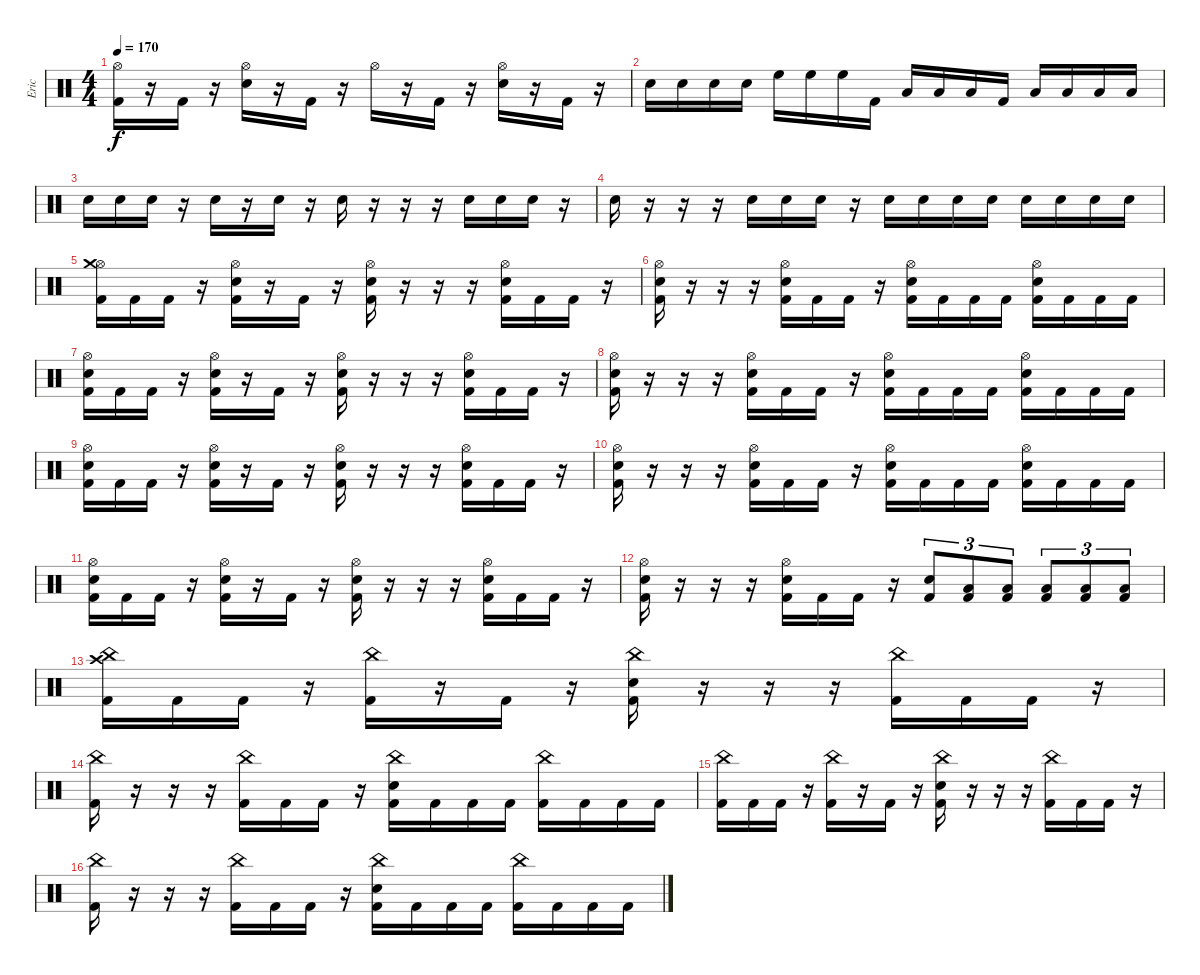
\track ("Eric" "Eric") {instrument percussion}
\staff {score}
\articulation defaults
\ts (4 4)
\tempo 170
\clef neutral
\ks c
("Hi-Hat (open)" "Kick (hit) 2").16{dy f} r.16 "Kick (hit) 2".16 r.16 ("Hi-Hat (open)" "Electric Snare (hit)").16 r.16 "Kick (hit) 2".16 r.16 "Hi-Hat (open)".16 r.16 "Kick (hit) 2".16 r.16 ("Hi-Hat (open)" "Electric Snare (hit)").16 r.16 "Kick (hit) 2".16 r.16 |
"Electric Snare (hit)".16 "Electric Snare (hit)".16 "Electric Snare (hit)".16 "Electric Snare (hit)".16 "High Floor Tom (hit)".16 "High Floor Tom (hit)".16 "High Floor Tom (hit)".16 "Kick (hit) 2".16 "Low Tom (hit)".16 "Low Tom (hit)".16 "Low Tom (hit)".16 "Kick (hit) 2".16 "Low Floor Tom (hit)".16 "Low Floor Tom (hit)".16 "Low Floor Tom (hit)".16 "Low Floor Tom (hit)".16 |
"Electric Snare (hit)".16 "Electric Snare (hit)".16 "Electric Snare (hit)".16 r.16 "Electric Snare (hit)".16 r.16 "Electric Snare (hit)".16 r.16 "Electric Snare (hit)".16 r.16 r.16 r.16 "Electric Snare (hit)".16 "Electric Snare (hit)".16 "Electric Snare (hit)".16 r.16 |
"Electric Snare (hit)".16 r.16 r.16 r.16 "Electric Snare (hit)".16 "Electric Snare (hit)".16 "Electric Snare (hit)".16 r.16 "Electric Snare (hit)".16 "Electric Snare (hit)".16 "Electric Snare (hit)".16 "Electric Snare (hit)".16 "Electric Snare (hit)".16 "Electric Snare (hit)".16 "Electric Snare (hit)".16 "Electric Snare (hit)".16 |
("Hi-Hat (open)" "Crash medium (hit)" "Kick (hit) 2").16 "Kick (hit) 2".16 "Kick (hit) 2".16 r.16 ("Hi-Hat (open)" "Electric Snare (hit)" "Kick (hit) 2").16 r.16 "Kick (hit) 2".16 r.16 ("Hi-Hat (open)" "Electric Snare (hit)" "Kick (hit) 2").16 r.16 r.16 r.16 ("Hi-Hat (open)" "Electric Snare (hit)" "Kick (hit) 2").16 "Kick (hit) 2".16 "Kick (hit) 2".16 r.16 |
("Hi-Hat (open)" "Electric Snare (hit)" "Kick (hit) 2").16 r.16 r.16 r.16 ("Hi-Hat (open)" "Electric Snare (hit)" "Kick (hit) 2").16 "Kick (hit) 2".16 "Kick (hit) 2".16 r.16 ("Hi-Hat (open)" "Electric Snare (hit)" "Kick (hit) 2").16 "Kick (hit) 2".16 "Kick (hit) 2".16 "Kick (hit) 2".16 ("Hi-Hat (open)" "Electric Snare (hit)" "Kick (hit) 2").16 "Kick (hit) 2".16 "Kick (hit) 2".16 "Kick (hit) 2".16 |
("Hi-Hat (open)" "Electric Snare (hit)" "Kick (hit) 2").16 "Kick (hit) 2".16 "Kick (hit) 2".16 r.16 ("Hi-Hat (open)" "Electric Snare (hit)" "Kick (hit) 2").16 r.16 "Kick (hit) 2".16 r.16 ("Hi-Hat (open)" "Electric Snare (hit)" "Kick (hit) 2").16 r.16 r.16 r.16 ("Hi-Hat (open)" "Electric Snare (hit)" "Kick (hit) 2").16 "Kick (hit) 2".16 "Kick (hit) 2".16 r.16 |
("Hi-Hat (open)" "Electric Snare (hit)" "Kick (hit) 2").16 r.16 r.16 r.16 ("Hi-Hat (open)" "Electric Snare (hit)" "Kick (hit) 2").16 "Kick (hit) 2".16 "Kick (hit) 2".16 r.16 ("Hi-Hat (open)" "Electric Snare (hit)" "Kick (hit) 2").16 "Kick (hit) 2".16 "Kick (hit) 2".16 "Kick (hit) 2".16 ("Hi-Hat (open)" "Electric Snare (hit)" "Kick (hit) 2").16 "Kick (hit) 2".16 "Kick (hit) 2".16 "Kick (hit) 2".16 |
("Hi-Hat (open)" "Electric Snare (hit)" "Kick (hit) 2").16 "Kick (hit) 2".16 "Kick (hit) 2".16 r.16 ("Hi-Hat (open)" "Electric Snare (hit)" "Kick (hit) 2").16 r.16 "Kick (hit) 2".16 r.16 ("Hi-Hat (open)" "Electric Snare (hit)" "Kick (hit) 2").16 r.16 r.16 r.16 ("Hi-Hat (open)" "Electric Snare (hit)" "Kick (hit) 2").16 "Kick (hit) 2".16 "Kick (hit) 2".16 r.16 |
("Hi-Hat (open)" "Electric Snare (hit)" "Kick (hit) 2").16 r.16 r.16 r.16 ("Hi-Hat (open)" "Electric Snare (hit)" "Kick (hit) 2").16 "Kick (hit) 2".16 "Kick (hit) 2".16 r.16 ("Hi-Hat (open)" "Electric Snare (hit)" "Kick (hit) 2").16 "Kick (hit) 2".16 "Kick (hit) 2".16 "Kick (hit) 2".16 ("Hi-Hat (open)" "Electric Snare (hit)" "Kick (hit) 2").16 "Kick (hit) 2".16 "Kick (hit) 2".16 "Kick (hit) 2".16 |
("Hi-Hat (open)" "Electric Snare (hit)" "Kick (hit) 2").16 "Kick (hit) 2".16 "Kick (hit) 2".16 r.16 ("Hi-Hat (open)" "Electric Snare (hit)" "Kick (hit) 2").16 r.16 "Kick (hit) 2".16 r.16 ("Hi-Hat (open)" "Electric Snare (hit)" "Kick (hit) 2").16 r.16 r.16 r.16 ("Hi-Hat (open)" "Electric Snare (hit)" "Kick (hit) 2").16 "Kick (hit) 2".16 "Kick (hit) 2".16 r.16 |
("Hi-Hat (open)" "Electric Snare (hit)" "Kick (hit) 2").16 r.16 r.16 r.16 ("Hi-Hat (open)" "Electric Snare (hit)" "Kick (hit) 2").16 "Kick (hit) 2".16 "Kick (hit) 2".16 r.16 ("Electric Snare (hit)" "Kick (hit) 2").8{tu (3 2)} ("Low Tom (hit)" "Kick (hit) 2").8{tu (3 2)} ("Low Floor Tom (hit)" "Kick (hit) 2").8{tu (3 2)} ("Low Tom (hit)" "Kick (hit) 2").8{tu (3 2)} ("Low Floor Tom (hit)" "Kick (hit) 2").8{tu (3 2)} ("Low Floor Tom (hit)" "Kick (hit) 2").8{tu (3 2)} |
("China (hit)" "Crash high (hit)" "Kick (hit) 2").16 "Kick (hit) 2".16 "Kick (hit) 2".16 r.16 ("China (hit)" "Kick (hit) 2").16 r.16 "Kick (hit) 2".16 r.16 ("China (hit)" "Electric Snare (hit)" "Kick (hit) 2").16 r.16 r.16 r.16 ("China (hit)" "Kick (hit) 2").16 "Kick (hit) 2".16 "Kick (hit) 2".16 r.16 |
("China (hit)" "Kick (hit) 2").16 r.16 r.16 r.16 ("China (hit)" "Kick (hit) 2").16 "Kick (hit) 2".16 "Kick (hit) 2".16 r.16 ("China (hit)" "Electric Snare (hit)" "Kick (hit) 2").16 "Kick (hit) 2".16 "Kick (hit) 2".16 "Kick (hit) 2".16 ("China (hit)" "Kick (hit) 2").16 "Kick (hit) 2".16 "Kick (hit) 2".16 "Kick (hit) 2".16 |
("China (hit)" "Kick (hit) 2").16 "Kick (hit) 2".16 "Kick (hit) 2".16 r.16 ("China (hit)" "Kick (hit) 2").16 r.16 "Kick (hit) 2".16 r.16 ("China (hit)" "Electric Snare (hit)" "Kick (hit) 2").16 r.16 r.16 r.16 ("China (hit)" "Kick (hit) 2").16 "Kick (hit) 2".16 "Kick (hit) 2".16 r.16 |
("China (hit)" "Kick (hit) 2").16 r.16 r.16 r.16 ("China (hit)" "Kick (hit) 2").16 "Kick (hit) 2".16 "Kick (hit) 2".16 r.16 ("China (hit)" "Electric Snare (hit)" "Kick (hit) 2").16 "Kick (hit) 2".16 "Kick (hit) 2".16 "Kick (hit) 2".16 ("China (hit)" "Kick (hit) 2").16 "Kick (hit) 2".16 "Kick (hit) 2".16 "Kick (hit) 2".16
